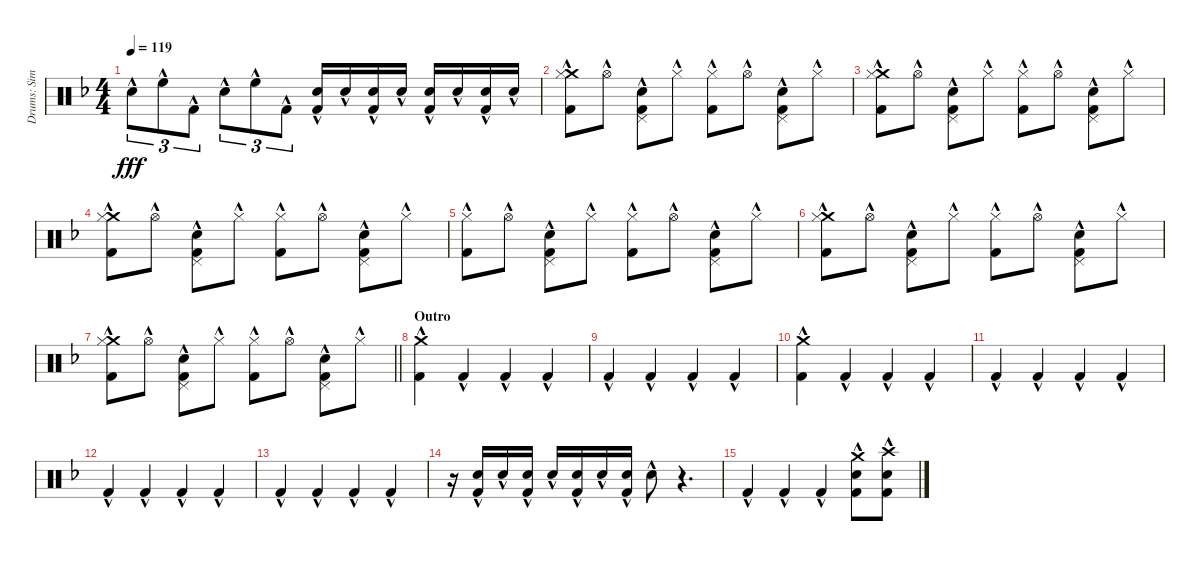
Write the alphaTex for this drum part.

\track ("Drums: Simon" "Drums: Sim") {instrument percussion}
\staff {score}
\articulation defaults
\ts (4 4)
\tempo 119
\clef neutral
\ks f "Snare (hit) 2"{hac}.8{tu (3 2) dy fff} "High Floor Tom (hit)"{hac}.8{tu (3 2)} "Kick (hit) 2"{hac}.8{tu (3 2)} "Snare (hit) 2"{hac}.8{tu (3 2)} "High Floor Tom (hit)"{hac}.8{tu (3 2)} "Kick (hit) 2"{hac}.8{tu (3 2)}
("Snare (hit) 2"{hac} "Kick (hit) 2"{hac}).16 "Snare (hit) 2"{hac}.16 ("Snare (hit) 2"{hac} "Kick (hit) 2"{hac}).16 "Snare (hit) 2"{hac}.16 ("Snare (hit) 2"{hac} "Kick (hit) 2"{hac}).16 "Snare (hit) 2"{hac}.16 ("Snare (hit) 2"{hac} "Kick (hit) 2"{hac}).16 "Snare (hit) 2"{hac}.16 |
("Crash medium (hit)"{hac} "Hi-Hat (closed)"{hac} "Kick (hit) 2"{hac}).8 "Hi-Hat (open)"{hac}.8 ("Pedal Hi-Hat (hit)"{hac} "Snare (hit) 2"{hac} "Kick (hit) 2"{hac}).8 "Hi-Hat (closed)"{hac}.8 ("Hi-Hat (closed)"{hac} "Kick (hit) 2"{hac}).8 "Hi-Hat (open)"{hac}.8 ("Pedal Hi-Hat (hit)"{hac} "Snare (hit) 2"{hac} "Kick (hit) 2"{hac}).8 "Hi-Hat (closed)"{hac}.8 |
("Crash medium (hit)"{hac} "Hi-Hat (closed)"{hac} "Kick (hit) 2"{hac}).8 "Hi-Hat (open)"{hac}.8 ("Pedal Hi-Hat (hit)"{hac} "Snare (hit) 2"{hac} "Kick (hit) 2"{hac}).8 "Hi-Hat (closed)"{hac}.8 ("Hi-Hat (closed)"{hac} "Kick (hit) 2"{hac}).8 "Hi-Hat (open)"{hac}.8 ("Pedal Hi-Hat (hit)"{hac} "Snare (hit) 2"{hac} "Kick (hit) 2"{hac}).8 "Hi-Hat (closed)"{hac}.8 |
("Crash medium (hit)"{hac} "Hi-Hat (closed)"{hac} "Kick (hit) 2"{hac}).8 "Hi-Hat (open)"{hac}.8 ("Pedal Hi-Hat (hit)"{hac} "Snare (hit) 2"{hac} "Kick (hit) 2"{hac}).8 "Hi-Hat (closed)"{hac}.8 ("Hi-Hat (closed)"{hac} "Kick (hit) 2"{hac}).8 "Hi-Hat (open)"{hac}.8 ("Pedal Hi-Hat (hit)"{hac} "Snare (hit) 2"{hac} "Kick (hit) 2"{hac}).8 "Hi-Hat (closed)"{hac}.8 |
("Hi-Hat (closed)"{hac} "Kick (hit) 2"{hac}).8 "Hi-Hat (open)"{hac}.8 ("Pedal Hi-Hat (hit)"{hac} "Snare (hit) 2"{hac} "Kick (hit) 2"{hac}).8 "Hi-Hat (closed)"{hac}.8 ("Hi-Hat (closed)"{hac} "Kick (hit) 2"{hac}).8 "Hi-Hat (open)"{hac}.8 ("Pedal Hi-Hat (hit)"{hac} "Snare (hit) 2"{hac} "Kick (hit) 2"{hac}).8 "Hi-Hat (closed)"{hac}.8 |
("Crash medium (hit)"{hac} "Hi-Hat (closed)"{hac} "Kick (hit) 2"{hac}).8 "Hi-Hat (open)"{hac}.8 ("Pedal Hi-Hat (hit)"{hac} "Snare (hit) 2"{hac} "Kick (hit) 2"{hac}).8 "Hi-Hat (closed)"{hac}.8 ("Hi-Hat (closed)"{hac} "Kick (hit) 2"{hac}).8 "Hi-Hat (open)"{hac}.8 ("Pedal Hi-Hat (hit)"{hac} "Snare (hit) 2"{hac} "Kick (hit) 2"{hac}).8 "Hi-Hat (closed)"{hac}.8 |
\barLineRight lightlight
("Crash medium (hit)"{hac} "Hi-Hat (closed)"{hac} "Kick (hit) 2"{hac}).8 "Hi-Hat (open)"{hac}.8 ("Pedal Hi-Hat (hit)"{hac} "Snare (hit) 2"{hac} "Kick (hit) 2"{hac}).8 "Hi-Hat (closed)"{hac}.8 ("Hi-Hat (closed)"{hac} "Kick (hit) 2"{hac}).8 "Hi-Hat (open)"{hac}.8 ("Pedal Hi-Hat (hit)"{hac} "Snare (hit) 2"{hac} "Kick (hit) 2"{hac}).8 "Hi-Hat (closed)"{hac}.8 |
\section ("" "Outro")
("Crash medium (hit)"{hac} "Kick (hit) 2"{hac}).4 "Kick (hit) 2"{hac}.4 "Kick (hit) 2"{hac}.4 "Kick (hit) 2"{hac}.4 |
"Kick (hit) 2"{hac}.4 "Kick (hit) 2"{hac}.4 "Kick (hit) 2"{hac}.4 "Kick (hit) 2"{hac}.4 |
("Crash medium (hit)"{hac} "Kick (hit) 2"{hac}).4 "Kick (hit) 2"{hac}.4 "Kick (hit) 2"{hac}.4 "Kick (hit) 2"{hac}.4 |
"Kick (hit) 2"{hac}.4 "Kick (hit) 2"{hac}.4 "Kick (hit) 2"{hac}.4 "Kick (hit) 2"{hac}.4 |
"Kick (hit) 2"{hac}.4 "Kick (hit) 2"{hac}.4 "Kick (hit) 2"{hac}.4 "Kick (hit) 2"{hac}.4 |
"Kick (hit) 2"{hac}.4 "Kick (hit) 2"{hac}.4 "Kick (hit) 2"{hac}.4 "Kick (hit) 2"{hac}.4 |
r.16 ("Snare (hit) 2"{hac} "Kick (hit) 2"{hac}).16 "Snare (hit) 2"{hac}.16 ("Snare (hit) 2"{hac} "Kick (hit) 2"{hac}).16 "Snare (hit) 2"{hac}.16 ("Snare (hit) 2"{hac} "Kick (hit) 2"{hac}).16 "Snare (hit) 2"{hac}.16 ("Snare (hit) 2"{hac} "Kick (hit) 2"{hac}).16 "Snare (hit) 2"{hac}.8 r.4{d} |
"Kick (hit) 2"{hac}.4 "Kick (hit) 2"{hac}.4 "Kick (hit) 2"{hac}.4 ("Crash medium (hit)"{hac} "Snare (hit) 2"{hac} "Kick (hit) 2"{hac}).8 ("Crash high (hit)"{hac} "Snare (hit) 2"{hac} "Kick (hit) 2"{hac}).8
